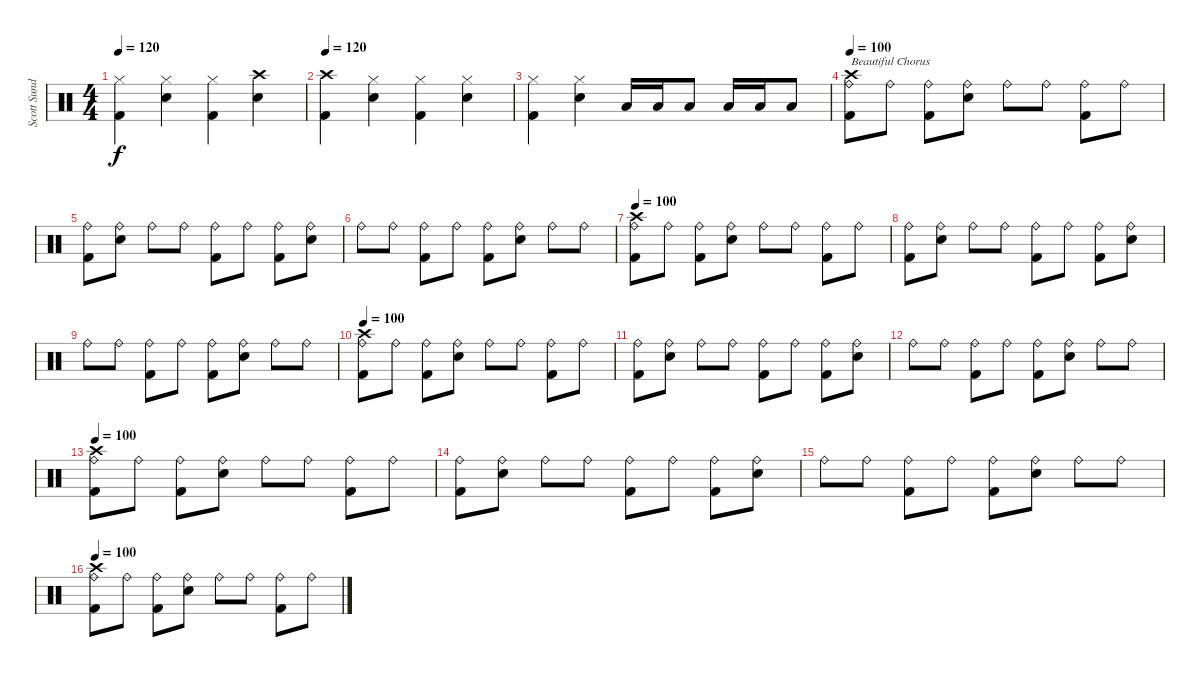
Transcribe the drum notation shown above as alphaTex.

\track ("Scott Sundquist" "Scott Sund") {instrument percussion}
\staff {score}
\articulation defaults
\ts (4 4)
\tempo 120
\clef neutral
\ks c
("Hi-Hat (closed)" "Kick (hit) 2").4{dy f} ("Hi-Hat (closed)" "Electric Snare (hit)").4 ("Hi-Hat (closed)" "Kick (hit) 2").4 ("Crash high (hit)" "Electric Snare (hit)").4 |
\tempo 120
("Crash high (hit)" "Kick (hit) 2").4 ("Hi-Hat (closed)" "Electric Snare (hit)").4 ("Hi-Hat (closed)" "Kick (hit) 2").4 ("Hi-Hat (closed)" "Electric Snare (hit)").4 |
("Hi-Hat (closed)" "Kick (hit) 2").4 ("Hi-Hat (closed)" "Electric Snare (hit)").4 "Low Floor Tom (hit)".16 "Low Floor Tom (hit)".16 "Low Floor Tom (hit)".8 "Low Tom (hit)".16 "Low Tom (hit)".16 "Low Tom (hit)".8 |
\tempo 100
("Crash high (hit)" "Ride (bell)" "Kick (hit) 2").8{txt "Beautiful Chorus"} "Ride (bell)".8 ("Ride (bell)" "Kick (hit) 2").8 ("Ride (bell)" "Electric Snare (hit)").8 "Ride (bell)".8 "Ride (bell)".8 ("Ride (bell)" "Kick (hit) 2").8 "Ride (bell)".8 |
("Ride (bell)" "Kick (hit) 2").8 ("Ride (bell)" "Electric Snare (hit)").8 "Ride (bell)".8 "Ride (bell)".8 ("Ride (bell)" "Kick (hit) 2").8 "Ride (bell)".8 ("Ride (bell)" "Kick (hit) 2").8 ("Ride (bell)" "Electric Snare (hit)").8 |
"Ride (bell)".8 "Ride (bell)".8 ("Ride (bell)" "Kick (hit) 2").8 "Ride (bell)".8 ("Ride (bell)" "Kick (hit) 2").8 ("Ride (bell)" "Electric Snare (hit)").8 "Ride (bell)".8 "Ride (bell)".8 |
\tempo 100
("Crash high (hit)" "Ride (bell)" "Kick (hit) 2").8 "Ride (bell)".8 ("Ride (bell)" "Kick (hit) 2").8 ("Ride (bell)" "Electric Snare (hit)").8 "Ride (bell)".8 "Ride (bell)".8 ("Ride (bell)" "Kick (hit) 2").8 "Ride (bell)".8 |
("Ride (bell)" "Kick (hit) 2").8 ("Ride (bell)" "Electric Snare (hit)").8 "Ride (bell)".8 "Ride (bell)".8 ("Ride (bell)" "Kick (hit) 2").8 "Ride (bell)".8 ("Ride (bell)" "Kick (hit) 2").8 ("Ride (bell)" "Electric Snare (hit)").8 |
"Ride (bell)".8 "Ride (bell)".8 ("Ride (bell)" "Kick (hit) 2").8 "Ride (bell)".8 ("Ride (bell)" "Kick (hit) 2").8 ("Ride (bell)" "Electric Snare (hit)").8 "Ride (bell)".8 "Ride (bell)".8 |
\tempo 100
("Crash high (hit)" "Ride (bell)" "Kick (hit) 2").8 "Ride (bell)".8 ("Ride (bell)" "Kick (hit) 2").8 ("Ride (bell)" "Electric Snare (hit)").8 "Ride (bell)".8 "Ride (bell)".8 ("Ride (bell)" "Kick (hit) 2").8 "Ride (bell)".8 |
("Ride (bell)" "Kick (hit) 2").8 ("Ride (bell)" "Electric Snare (hit)").8 "Ride (bell)".8 "Ride (bell)".8 ("Ride (bell)" "Kick (hit) 2").8 "Ride (bell)".8 ("Ride (bell)" "Kick (hit) 2").8 ("Ride (bell)" "Electric Snare (hit)").8 |
"Ride (bell)".8 "Ride (bell)".8 ("Ride (bell)" "Kick (hit) 2").8 "Ride (bell)".8 ("Ride (bell)" "Kick (hit) 2").8 ("Ride (bell)" "Electric Snare (hit)").8 "Ride (bell)".8 "Ride (bell)".8 |
\tempo 100
("Crash high (hit)" "Ride (bell)" "Kick (hit) 2").8 "Ride (bell)".8 ("Ride (bell)" "Kick (hit) 2").8 ("Ride (bell)" "Electric Snare (hit)").8 "Ride (bell)".8 "Ride (bell)".8 ("Ride (bell)" "Kick (hit) 2").8 "Ride (bell)".8 |
("Ride (bell)" "Kick (hit) 2").8 ("Ride (bell)" "Electric Snare (hit)").8 "Ride (bell)".8 "Ride (bell)".8 ("Ride (bell)" "Kick (hit) 2").8 "Ride (bell)".8 ("Ride (bell)" "Kick (hit) 2").8 ("Ride (bell)" "Electric Snare (hit)").8 |
"Ride (bell)".8 "Ride (bell)".8 ("Ride (bell)" "Kick (hit) 2").8 "Ride (bell)".8 ("Ride (bell)" "Kick (hit) 2").8 ("Ride (bell)" "Electric Snare (hit)").8 "Ride (bell)".8 "Ride (bell)".8 |
\tempo 100
("Crash high (hit)" "Ride (bell)" "Kick (hit) 2").8 "Ride (bell)".8 ("Ride (bell)" "Kick (hit) 2").8 ("Ride (bell)" "Electric Snare (hit)").8 "Ride (bell)".8 "Ride (bell)".8 ("Ride (bell)" "Kick (hit) 2").8 "Ride (bell)".8
